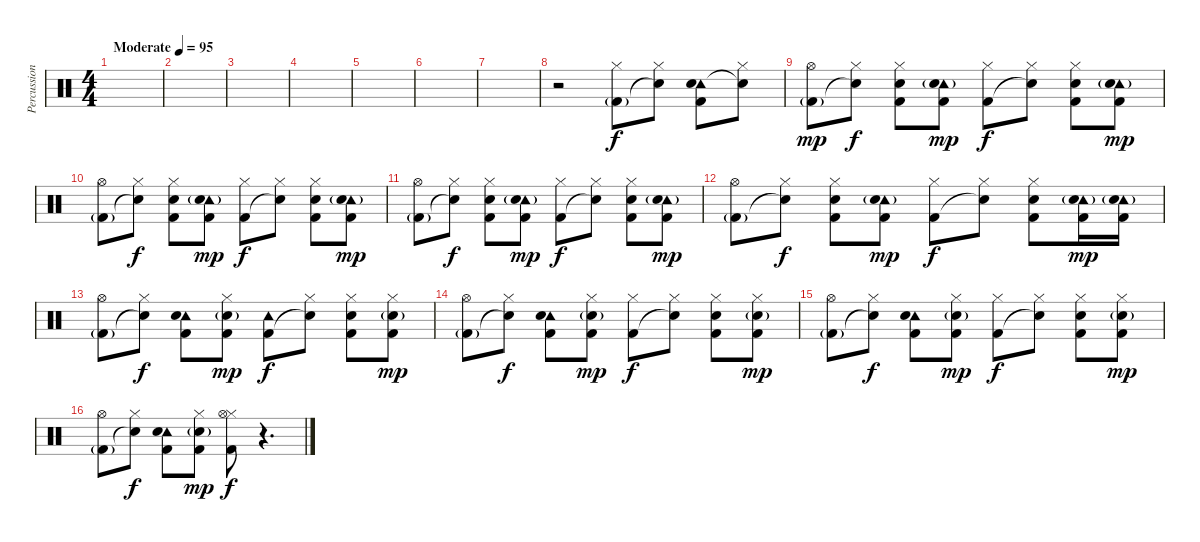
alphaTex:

\track ("Percussion" "Percussion") {instrument percussion}
\staff {score}
\articulation defaults
\ts (4 4)
\tempo (95 "Moderate")
\clef neutral
\ks c
|
|
|
|
|
|
|
r.2 ("Hi-Hat (closed)" "Kick (hit) 2"{g}).8 ("Hi-Hat (closed)" "Snare (hit)"{t}).8{dy f} ("Tambourine (hit)" "Electric Snare (hit)" "Kick (hit) 2").8 ("Hi-Hat (closed)" "Snare (hit)"{t}).8 |
("Hi-Hat (open)" "Kick (hit) 2"{g}).8{dy mp} ("Hi-Hat (closed)" "Snare (hit)"{t}).8{dy f} ("Hi-Hat (closed)" "Electric Snare (hit)" "Kick (hit) 2").8 ("Tambourine (hit)" "Electric Snare (hit)"{g} "Kick (hit) 2").8{dy mp} ("Hi-Hat (closed)" "Kick (hit) 2").8{dy f} ("Hi-Hat (closed)" "Snare (hit)"{t}).8 ("Hi-Hat (closed)" "Electric Snare (hit)" "Kick (hit) 2").8 ("Tambourine (hit)" "Electric Snare (hit)"{g} "Kick (hit) 2").8{dy mp} |
("Hi-Hat (open)" "Kick (hit) 2"{g}).8 ("Hi-Hat (closed)" "Snare (hit)"{t}).8{dy f} ("Hi-Hat (closed)" "Electric Snare (hit)" "Kick (hit) 2").8 ("Tambourine (hit)" "Electric Snare (hit)"{g} "Kick (hit) 2").8{dy mp} ("Hi-Hat (closed)" "Kick (hit) 2").8{dy f} ("Hi-Hat (closed)" "Snare (hit)"{t}).8 ("Hi-Hat (closed)" "Electric Snare (hit)" "Kick (hit) 2").8 ("Tambourine (hit)" "Electric Snare (hit)"{g} "Kick (hit) 2").8{dy mp} |
("Hi-Hat (open)" "Kick (hit) 2"{g}).8 ("Hi-Hat (closed)" "Snare (hit)"{t}).8{dy f} ("Hi-Hat (closed)" "Electric Snare (hit)" "Kick (hit) 2").8 ("Tambourine (hit)" "Electric Snare (hit)"{g} "Kick (hit) 2").8{dy mp} ("Hi-Hat (closed)" "Kick (hit) 2").8{dy f} ("Hi-Hat (closed)" "Snare (hit)"{t}).8 ("Hi-Hat (closed)" "Electric Snare (hit)" "Kick (hit) 2").8 ("Tambourine (hit)" "Electric Snare (hit)"{g} "Kick (hit) 2").8{dy mp} |
("Hi-Hat (open)" "Kick (hit) 2"{g}).8 ("Hi-Hat (closed)" "Snare (hit)"{t}).8{dy f} ("Hi-Hat (closed)" "Electric Snare (hit)" "Kick (hit) 2").8 ("Tambourine (hit)" "Electric Snare (hit)"{g} "Kick (hit) 2").8{dy mp} ("Hi-Hat (closed)" "Kick (hit) 2").8{dy f} ("Hi-Hat (closed)" "Snare (hit)"{t}).8 ("Hi-Hat (closed)" "Electric Snare (hit)" "Kick (hit) 2").8 ("Tambourine (hit)" "Electric Snare (hit)"{g} "Kick (hit) 2").16{dy mp} ("Tambourine (hit)" "Electric Snare (hit)"{g} "Kick (hit) 2").16 |
("Hi-Hat (open)" "Kick (hit) 2"{g}).8 ("Hi-Hat (closed)" "Snare (hit)"{t}).8{dy f} ("Tambourine (hit)" "Electric Snare (hit)" "Kick (hit) 2").8 ("Hi-Hat (closed)" "Electric Snare (hit)"{g} "Kick (hit) 2").8{dy mp} ("Tambourine (hit)" "Kick (hit) 2").8{dy f} ("Hi-Hat (closed)" "Snare (hit)"{t}).8 ("Hi-Hat (closed)" "Electric Snare (hit)" "Kick (hit) 2").8 ("Hi-Hat (closed)" "Electric Snare (hit)"{g} "Kick (hit) 2").8{dy mp} |
("Hi-Hat (open)" "Kick (hit) 2"{g}).8 ("Hi-Hat (closed)" "Snare (hit)"{t}).8{dy f} ("Tambourine (hit)" "Electric Snare (hit)" "Kick (hit) 2").8 ("Hi-Hat (closed)" "Electric Snare (hit)"{g} "Kick (hit) 2").8{dy mp} ("Hi-Hat (closed)" "Kick (hit) 2").8{dy f} ("Hi-Hat (closed)" "Snare (hit)"{t}).8 ("Hi-Hat (closed)" "Electric Snare (hit)" "Kick (hit) 2").8 ("Hi-Hat (closed)" "Electric Snare (hit)"{g} "Kick (hit) 2").8{dy mp} |
("Hi-Hat (open)" "Kick (hit) 2"{g}).8 ("Hi-Hat (closed)" "Snare (hit)"{t}).8{dy f} ("Tambourine (hit)" "Electric Snare (hit)" "Kick (hit) 2").8 ("Hi-Hat (closed)" "Electric Snare (hit)"{g} "Kick (hit) 2").8{dy mp} ("Hi-Hat (closed)" "Kick (hit) 2").8{dy f} ("Hi-Hat (closed)" "Snare (hit)"{t}).8 ("Hi-Hat (closed)" "Electric Snare (hit)" "Kick (hit) 2").8 ("Hi-Hat (closed)" "Electric Snare (hit)"{g} "Kick (hit) 2").8{dy mp} |
("Hi-Hat (open)" "Kick (hit) 2"{g}).8 ("Hi-Hat (closed)" "Snare (hit)"{t}).8{dy f} ("Tambourine (hit)" "Electric Snare (hit)" "Kick (hit) 2").8 ("Hi-Hat (closed)" "Electric Snare (hit)"{g} "Kick (hit) 2").8{dy mp} ("Hi-Hat (closed)" "Hi-Hat (open)" "Kick (hit) 2").8{dy f} r.4{d}
